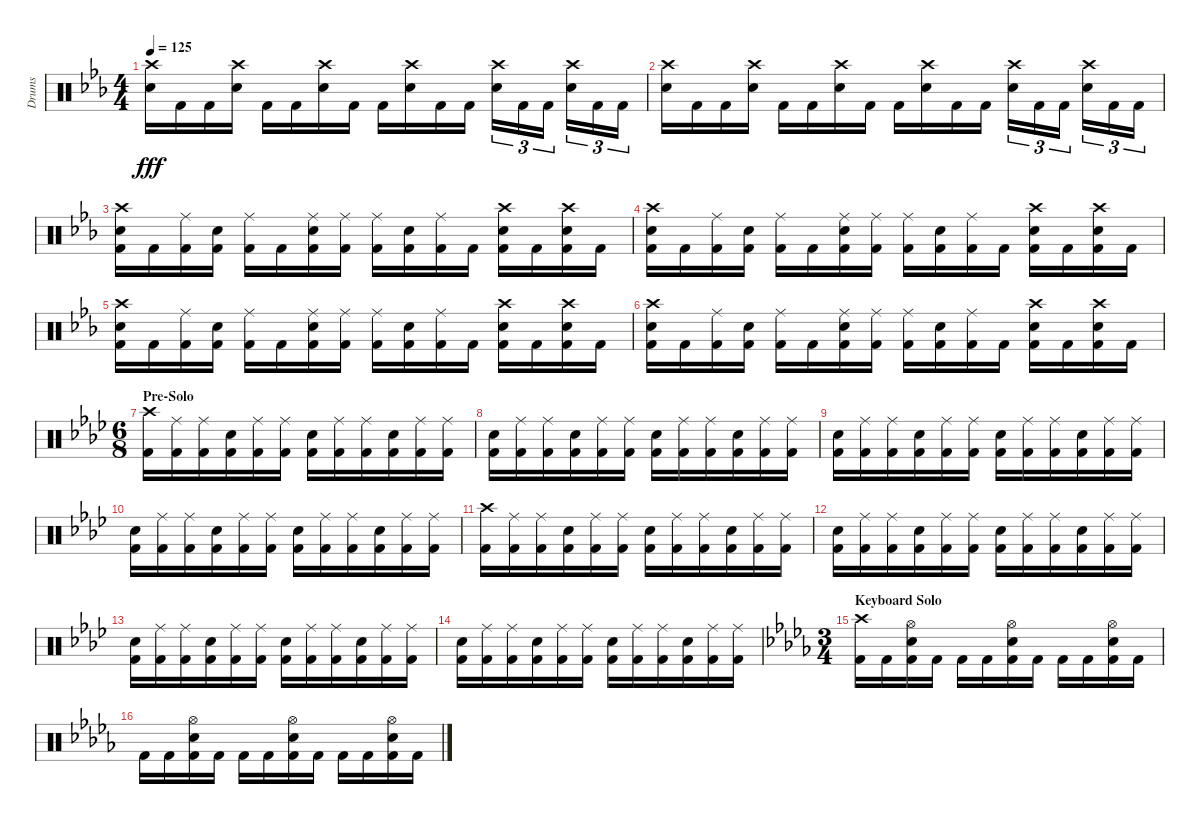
\track ("Drums" "Drums") {instrument percussion}
\staff {score}
\articulation defaults
\ts (4 4)
\tempo 125
\clef neutral
\ks cminor
("Crash high (hit)" "Snare (hit) 2").16{dy fff} "Kick (hit) 2".16 "Kick (hit) 2".16 ("Crash high (hit)" "Snare (hit) 2").16 "Kick (hit) 2".16 "Kick (hit) 2".16 ("Crash high (hit)" "Snare (hit) 2").16 "Kick (hit) 2".16 "Kick (hit) 2".16 ("Crash high (hit)" "Snare (hit) 2").16 "Kick (hit) 2".16 "Kick (hit) 2".16 ("Crash high (hit)" "Snare (hit) 2").16{tu (3 2)} "Kick (hit) 2".16{tu (3 2)} "Kick (hit) 2".16{tu (3 2)} ("Crash high (hit)" "Snare (hit) 2").16{tu (3 2)} "Kick (hit) 2".16{tu (3 2)} "Kick (hit) 2".16{tu (3 2)} |
("Crash high (hit)" "Snare (hit) 2").16 "Kick (hit) 2".16 "Kick (hit) 2".16 ("Crash high (hit)" "Snare (hit) 2").16 "Kick (hit) 2".16 "Kick (hit) 2".16 ("Crash high (hit)" "Snare (hit) 2").16 "Kick (hit) 2".16 "Kick (hit) 2".16 ("Crash high (hit)" "Snare (hit) 2").16 "Kick (hit) 2".16 "Kick (hit) 2".16 ("Crash high (hit)" "Snare (hit) 2").16{tu (3 2)} "Kick (hit) 2".16{tu (3 2)} "Kick (hit) 2".16{tu (3 2)} ("Crash high (hit)" "Snare (hit) 2").16{tu (3 2)} "Kick (hit) 2".16{tu (3 2)} "Kick (hit) 2".16{tu (3 2)} |
("Crash high (hit)" "Snare (hit) 2" "Kick (hit) 2").16 "Kick (hit) 2".16 ("Ride (middle)" "Kick (hit) 2").16 ("Snare (hit) 2" "Kick (hit) 2").16 ("Ride (middle)" "Kick (hit) 2").16 "Kick (hit) 2".16 ("Ride (middle)" "Snare (hit) 2" "Kick (hit) 2").16 ("Ride (middle)" "Kick (hit) 2").16 ("Ride (middle)" "Kick (hit) 2").16 ("Snare (hit) 2" "Kick (hit) 2").16 ("Ride (middle)" "Kick (hit) 2").16 "Kick (hit) 2".16 ("Crash high (hit)" "Snare (hit) 2" "Kick (hit) 2").16 "Kick (hit) 2".16 ("Crash high (hit)" "Snare (hit) 2" "Kick (hit) 2").16 "Kick (hit) 2".16 |
("Crash high (hit)" "Snare (hit) 2" "Kick (hit) 2").16 "Kick (hit) 2".16 ("Ride (middle)" "Kick (hit) 2").16 ("Snare (hit) 2" "Kick (hit) 2").16 ("Ride (middle)" "Kick (hit) 2").16 "Kick (hit) 2".16 ("Ride (middle)" "Snare (hit) 2" "Kick (hit) 2").16 ("Ride (middle)" "Kick (hit) 2").16 ("Ride (middle)" "Kick (hit) 2").16 ("Snare (hit) 2" "Kick (hit) 2").16 ("Ride (middle)" "Kick (hit) 2").16 "Kick (hit) 2".16 ("Crash high (hit)" "Snare (hit) 2" "Kick (hit) 2").16 "Kick (hit) 2".16 ("Crash high (hit)" "Snare (hit) 2" "Kick (hit) 2").16 "Kick (hit) 2".16 |
("Crash high (hit)" "Snare (hit) 2" "Kick (hit) 2").16 "Kick (hit) 2".16 ("Ride (middle)" "Kick (hit) 2").16 ("Snare (hit) 2" "Kick (hit) 2").16 ("Ride (middle)" "Kick (hit) 2").16 "Kick (hit) 2".16 ("Ride (middle)" "Snare (hit) 2" "Kick (hit) 2").16 ("Ride (middle)" "Kick (hit) 2").16 ("Ride (middle)" "Kick (hit) 2").16 ("Snare (hit) 2" "Kick (hit) 2").16 ("Ride (middle)" "Kick (hit) 2").16 "Kick (hit) 2".16 ("Crash high (hit)" "Snare (hit) 2" "Kick (hit) 2").16 "Kick (hit) 2".16 ("Crash high (hit)" "Snare (hit) 2" "Kick (hit) 2").16 "Kick (hit) 2".16 |
("Crash high (hit)" "Snare (hit) 2" "Kick (hit) 2").16 "Kick (hit) 2".16 ("Ride (middle)" "Kick (hit) 2").16 ("Snare (hit) 2" "Kick (hit) 2").16 ("Ride (middle)" "Kick (hit) 2").16 "Kick (hit) 2".16 ("Ride (middle)" "Snare (hit) 2" "Kick (hit) 2").16 ("Ride (middle)" "Kick (hit) 2").16 ("Ride (middle)" "Kick (hit) 2").16 ("Snare (hit) 2" "Kick (hit) 2").16 ("Ride (middle)" "Kick (hit) 2").16 "Kick (hit) 2".16 ("Crash high (hit)" "Snare (hit) 2" "Kick (hit) 2").16 "Kick (hit) 2".16 ("Crash high (hit)" "Snare (hit) 2" "Kick (hit) 2").16 "Kick (hit) 2".16 |
\ts (6 8)
\section ("" "Pre-Solo")
\ks fminor
("Crash high (hit)" "Kick (hit) 2").16 ("Ride (middle)" "Kick (hit) 2").16 ("Ride (middle)" "Kick (hit) 2").16 ("Snare (hit) 2" "Kick (hit) 2").16 ("Ride (middle)" "Kick (hit) 2").16 ("Ride (middle)" "Kick (hit) 2").16 ("Snare (hit) 2" "Kick (hit) 2").16 ("Ride (middle)" "Kick (hit) 2").16 ("Ride (middle)" "Kick (hit) 2").16 ("Snare (hit) 2" "Kick (hit) 2").16 ("Ride (middle)" "Kick (hit) 2").16 ("Ride (middle)" "Kick (hit) 2").16 |
("Snare (hit) 2" "Kick (hit) 2").16 ("Ride (middle)" "Kick (hit) 2").16 ("Ride (middle)" "Kick (hit) 2").16 ("Snare (hit) 2" "Kick (hit) 2").16 ("Ride (middle)" "Kick (hit) 2").16 ("Ride (middle)" "Kick (hit) 2").16 ("Snare (hit) 2" "Kick (hit) 2").16 ("Ride (middle)" "Kick (hit) 2").16 ("Ride (middle)" "Kick (hit) 2").16 ("Snare (hit) 2" "Kick (hit) 2").16 ("Ride (middle)" "Kick (hit) 2").16 ("Ride (middle)" "Kick (hit) 2").16 |
("Snare (hit) 2" "Kick (hit) 2").16 ("Ride (middle)" "Kick (hit) 2").16 ("Ride (middle)" "Kick (hit) 2").16 ("Snare (hit) 2" "Kick (hit) 2").16 ("Ride (middle)" "Kick (hit) 2").16 ("Ride (middle)" "Kick (hit) 2").16 ("Snare (hit) 2" "Kick (hit) 2").16 ("Ride (middle)" "Kick (hit) 2").16 ("Ride (middle)" "Kick (hit) 2").16 ("Snare (hit) 2" "Kick (hit) 2").16 ("Ride (middle)" "Kick (hit) 2").16 ("Ride (middle)" "Kick (hit) 2").16 |
("Snare (hit) 2" "Kick (hit) 2").16 ("Ride (middle)" "Kick (hit) 2").16 ("Ride (middle)" "Kick (hit) 2").16 ("Snare (hit) 2" "Kick (hit) 2").16 ("Ride (middle)" "Kick (hit) 2").16 ("Ride (middle)" "Kick (hit) 2").16 ("Snare (hit) 2" "Kick (hit) 2").16 ("Ride (middle)" "Kick (hit) 2").16 ("Ride (middle)" "Kick (hit) 2").16 ("Snare (hit) 2" "Kick (hit) 2").16 ("Ride (middle)" "Kick (hit) 2").16 ("Ride (middle)" "Kick (hit) 2").16 |
("Crash high (hit)" "Kick (hit) 2").16 ("Ride (middle)" "Kick (hit) 2").16 ("Ride (middle)" "Kick (hit) 2").16 ("Snare (hit) 2" "Kick (hit) 2").16 ("Ride (middle)" "Kick (hit) 2").16 ("Ride (middle)" "Kick (hit) 2").16 ("Snare (hit) 2" "Kick (hit) 2").16 ("Ride (middle)" "Kick (hit) 2").16 ("Ride (middle)" "Kick (hit) 2").16 ("Snare (hit) 2" "Kick (hit) 2").16 ("Ride (middle)" "Kick (hit) 2").16 ("Ride (middle)" "Kick (hit) 2").16 |
("Snare (hit) 2" "Kick (hit) 2").16 ("Ride (middle)" "Kick (hit) 2").16 ("Ride (middle)" "Kick (hit) 2").16 ("Snare (hit) 2" "Kick (hit) 2").16 ("Ride (middle)" "Kick (hit) 2").16 ("Ride (middle)" "Kick (hit) 2").16 ("Snare (hit) 2" "Kick (hit) 2").16 ("Ride (middle)" "Kick (hit) 2").16 ("Ride (middle)" "Kick (hit) 2").16 ("Snare (hit) 2" "Kick (hit) 2").16 ("Ride (middle)" "Kick (hit) 2").16 ("Ride (middle)" "Kick (hit) 2").16 |
("Snare (hit) 2" "Kick (hit) 2").16 ("Ride (middle)" "Kick (hit) 2").16 ("Ride (middle)" "Kick (hit) 2").16 ("Snare (hit) 2" "Kick (hit) 2").16 ("Ride (middle)" "Kick (hit) 2").16 ("Ride (middle)" "Kick (hit) 2").16 ("Snare (hit) 2" "Kick (hit) 2").16 ("Ride (middle)" "Kick (hit) 2").16 ("Ride (middle)" "Kick (hit) 2").16 ("Snare (hit) 2" "Kick (hit) 2").16 ("Ride (middle)" "Kick (hit) 2").16 ("Ride (middle)" "Kick (hit) 2").16 |
("Snare (hit) 2" "Kick (hit) 2").16 ("Ride (middle)" "Kick (hit) 2").16 ("Ride (middle)" "Kick (hit) 2").16 ("Snare (hit) 2" "Kick (hit) 2").16 ("Ride (middle)" "Kick (hit) 2").16 ("Ride (middle)" "Kick (hit) 2").16 ("Snare (hit) 2" "Kick (hit) 2").16 ("Ride (middle)" "Kick (hit) 2").16 ("Ride (middle)" "Kick (hit) 2").16 ("Snare (hit) 2" "Kick (hit) 2").16 ("Ride (middle)" "Kick (hit) 2").16 ("Ride (middle)" "Kick (hit) 2").16 |
\ts (3 4)
\section ("" "Keyboard Solo")
\ks bbminor
("Crash high (hit)" "Kick (hit) 2").16 "Kick (hit) 2".16 ("Hi-Hat (open)" "Snare (hit) 2" "Kick (hit) 2").16 "Kick (hit) 2".16 "Kick (hit) 2".16 "Kick (hit) 2".16 ("Hi-Hat (open)" "Snare (hit) 2" "Kick (hit) 2").16 "Kick (hit) 2".16 "Kick (hit) 2".16 "Kick (hit) 2".16 ("Hi-Hat (open)" "Snare (hit) 2" "Kick (hit) 2").16 "Kick (hit) 2".16 |
"Kick (hit) 2".16 "Kick (hit) 2".16 ("Hi-Hat (open)" "Snare (hit) 2" "Kick (hit) 2").16 "Kick (hit) 2".16 "Kick (hit) 2".16 "Kick (hit) 2".16 ("Hi-Hat (open)" "Snare (hit) 2" "Kick (hit) 2").16 "Kick (hit) 2".16 "Kick (hit) 2".16 "Kick (hit) 2".16 ("Hi-Hat (open)" "Snare (hit) 2" "Kick (hit) 2").16 "Kick (hit) 2".16
